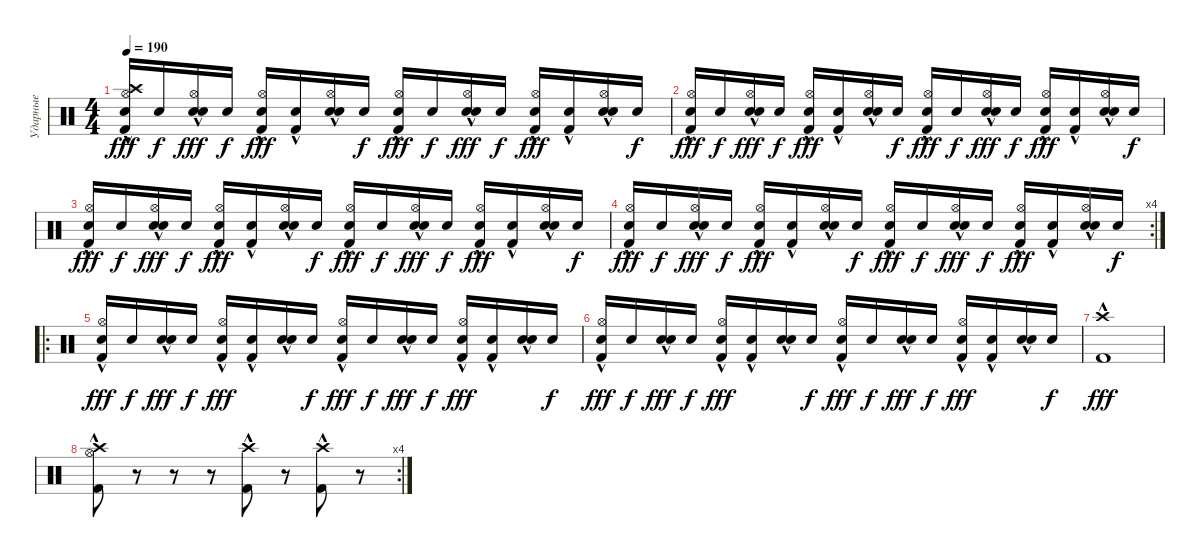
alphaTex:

\track ("Ударные" "Ударные") {instrument percussion}
\staff {score}
\articulation defaults
\ts (4 4)
\tempo 190
\clef neutral
\ks c
("Snare (hit)" "Crash high (hit)"{hac} "Hi-Hat (open)"{hac} "Kick (hit) 2"{hac}).16{dy fff} "Snare (hit)".16{dy f} ("Snare (hit)" "Hi-Hat (open)"{hac} "Electric Snare (hit)"{hac}).16{dy fff} "Snare (hit)".16{dy f} ("Snare (hit)" "Hi-Hat (open)"{hac} "Kick (hit) 2"{hac}).16{dy fff} ("Snare (hit)" "Kick (hit) 2"{hac}).16 ("Snare (hit)" "Hi-Hat (open)"{hac} "Electric Snare (hit)"{hac}).16 "Snare (hit)".16{dy f} ("Snare (hit)" "Hi-Hat (open)"{hac} "Kick (hit) 2"{hac}).16{dy fff} "Snare (hit)".16{dy f} ("Snare (hit)" "Hi-Hat (open)"{hac} "Electric Snare (hit)"{hac}).16{dy fff} "Snare (hit)".16{dy f} ("Snare (hit)" "Hi-Hat (open)"{hac} "Kick (hit) 2"{hac}).16{dy fff} ("Snare (hit)" "Kick (hit) 2"{hac}).16 ("Snare (hit)" "Hi-Hat (open)"{hac} "Electric Snare (hit)"{hac}).16 "Snare (hit)".16{dy f} |
("Snare (hit)" "Hi-Hat (open)"{hac} "Kick (hit) 2"{hac}).16{dy fff} "Snare (hit)".16{dy f} ("Snare (hit)" "Hi-Hat (open)"{hac} "Electric Snare (hit)"{hac}).16{dy fff} "Snare (hit)".16{dy f} ("Snare (hit)" "Hi-Hat (open)"{hac} "Kick (hit) 2"{hac}).16{dy fff} ("Snare (hit)" "Kick (hit) 2"{hac}).16 ("Snare (hit)" "Hi-Hat (open)"{hac} "Electric Snare (hit)"{hac}).16 "Snare (hit)".16{dy f} ("Snare (hit)" "Hi-Hat (open)"{hac} "Kick (hit) 2"{hac}).16{dy fff} "Snare (hit)".16{dy f} ("Snare (hit)" "Hi-Hat (open)"{hac} "Electric Snare (hit)"{hac}).16{dy fff} "Snare (hit)".16{dy f} ("Snare (hit)" "Hi-Hat (open)"{hac} "Kick (hit) 2"{hac}).16{dy fff} ("Snare (hit)" "Kick (hit) 2"{hac}).16 ("Snare (hit)" "Hi-Hat (open)"{hac} "Electric Snare (hit)"{hac}).16 "Snare (hit)".16{dy f} |
("Snare (hit)" "Hi-Hat (open)"{hac} "Kick (hit) 2"{hac}).16{dy fff} "Snare (hit)".16{dy f} ("Snare (hit)" "Hi-Hat (open)"{hac} "Electric Snare (hit)"{hac}).16{dy fff} "Snare (hit)".16{dy f} ("Snare (hit)" "Hi-Hat (open)"{hac} "Kick (hit) 2"{hac}).16{dy fff} ("Snare (hit)" "Kick (hit) 2"{hac}).16 ("Snare (hit)" "Hi-Hat (open)"{hac} "Electric Snare (hit)"{hac}).16 "Snare (hit)".16{dy f} ("Snare (hit)" "Hi-Hat (open)"{hac} "Kick (hit) 2"{hac}).16{dy fff} "Snare (hit)".16{dy f} ("Snare (hit)" "Hi-Hat (open)"{hac} "Electric Snare (hit)"{hac}).16{dy fff} "Snare (hit)".16{dy f} ("Snare (hit)" "Hi-Hat (open)"{hac} "Kick (hit) 2"{hac}).16{dy fff} ("Snare (hit)" "Kick (hit) 2"{hac}).16 ("Snare (hit)" "Hi-Hat (open)"{hac} "Electric Snare (hit)"{hac}).16 "Snare (hit)".16{dy f} |
\rc 4
("Snare (hit)" "Hi-Hat (open)"{hac} "Kick (hit) 2"{hac}).16{dy fff} "Snare (hit)".16{dy f} ("Snare (hit)" "Hi-Hat (open)"{hac} "Electric Snare (hit)"{hac}).16{dy fff} "Snare (hit)".16{dy f} ("Snare (hit)" "Hi-Hat (open)"{hac} "Kick (hit) 2"{hac}).16{dy fff} ("Snare (hit)" "Kick (hit) 2"{hac}).16 ("Snare (hit)" "Hi-Hat (open)"{hac} "Electric Snare (hit)"{hac}).16 "Snare (hit)".16{dy f} ("Snare (hit)" "Hi-Hat (open)"{hac} "Kick (hit) 2"{hac}).16{dy fff} "Snare (hit)".16{dy f} ("Snare (hit)" "Hi-Hat (open)"{hac} "Electric Snare (hit)"{hac}).16{dy fff} "Snare (hit)".16{dy f} ("Snare (hit)" "Hi-Hat (open)"{hac} "Kick (hit) 2"{hac}).16{dy fff} ("Snare (hit)" "Kick (hit) 2"{hac}).16 ("Snare (hit)" "Hi-Hat (open)"{hac} "Electric Snare (hit)"{hac}).16 "Snare (hit)".16{dy f} |
\ro
("Snare (hit)" "Hi-Hat (open)"{hac} "Kick (hit) 2"{hac}).16{dy fff} "Snare (hit)".16{dy f} ("Snare (hit)" "Electric Snare (hit)"{hac}).16{dy fff} "Snare (hit)".16{dy f} ("Snare (hit)" "Hi-Hat (open)"{hac} "Kick (hit) 2"{hac}).16{dy fff} ("Snare (hit)" "Kick (hit) 2"{hac}).16 ("Snare (hit)" "Electric Snare (hit)"{hac}).16 "Snare (hit)".16{dy f} ("Snare (hit)" "Hi-Hat (open)"{hac} "Kick (hit) 2"{hac}).16{dy fff} "Snare (hit)".16{dy f} ("Snare (hit)" "Electric Snare (hit)"{hac}).16{dy fff} "Snare (hit)".16{dy f} ("Snare (hit)" "Hi-Hat (open)"{hac} "Kick (hit) 2"{hac}).16{dy fff} ("Snare (hit)" "Kick (hit) 2"{hac}).16 ("Snare (hit)" "Electric Snare (hit)"{hac}).16 "Snare (hit)".16{dy f} |
("Snare (hit)" "Hi-Hat (open)"{hac} "Kick (hit) 2"{hac}).16{dy fff} "Snare (hit)".16{dy f} ("Snare (hit)" "Electric Snare (hit)"{hac}).16{dy fff} "Snare (hit)".16{dy f} ("Snare (hit)" "Hi-Hat (open)"{hac} "Kick (hit) 2"{hac}).16{dy fff} ("Snare (hit)" "Kick (hit) 2"{hac}).16 ("Snare (hit)" "Electric Snare (hit)"{hac}).16 "Snare (hit)".16{dy f} ("Snare (hit)" "Hi-Hat (open)"{hac} "Kick (hit) 2"{hac}).16{dy fff} "Snare (hit)".16{dy f} ("Snare (hit)" "Electric Snare (hit)"{hac}).16{dy fff} "Snare (hit)".16{dy f} ("Snare (hit)" "Hi-Hat (open)"{hac} "Kick (hit) 2"{hac}).16{dy fff} ("Snare (hit)" "Kick (hit) 2"{hac}).16 ("Snare (hit)" "Electric Snare (hit)"{hac}).16 "Snare (hit)".16{dy f} |
("Crash high (hit)"{hac} "Kick (hit) 2"{hac}).1{dy fff} |
\rc 4
("Crash high (hit)"{hac} "Hi-Hat (open)" "Kick (hit) 2"{hac}).8 r.8 r.8 r.8 ("Crash high (hit)"{hac} "Kick (hit) 2"{hac}).8 r.8 ("Crash high (hit)"{hac} "Kick (hit) 2"{hac}).8 r.8
